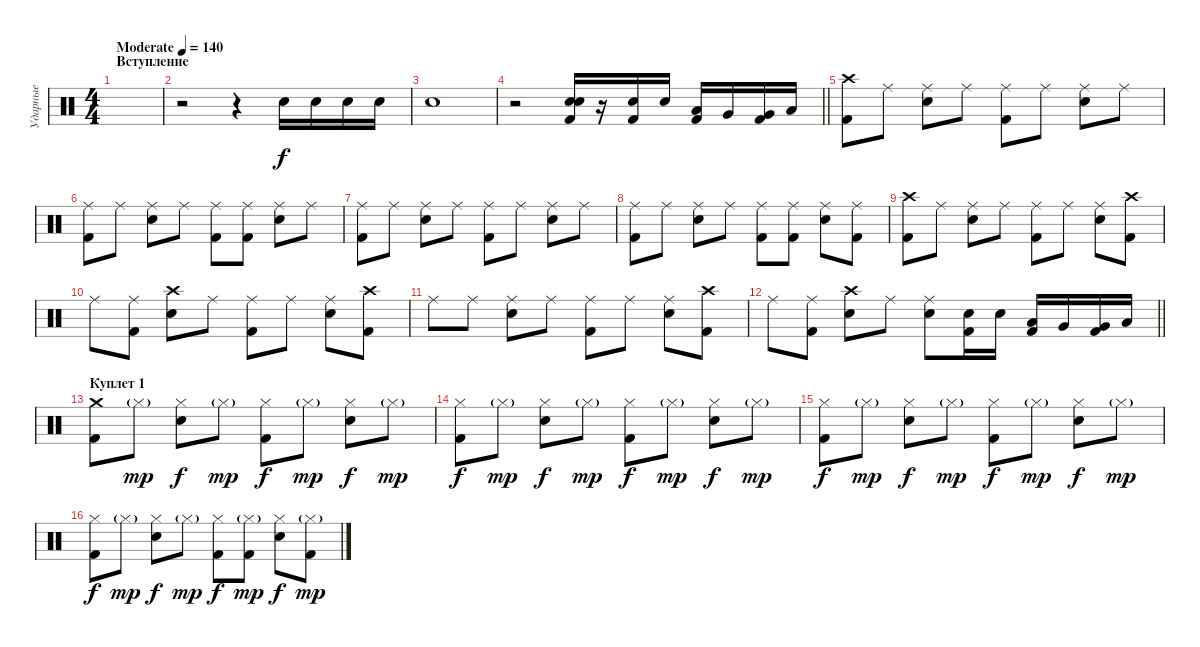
\track ("Ударные" "Ударные") {instrument percussion}
\staff {score}
\articulation defaults
\ts (4 4)
\section ("" "Вступление")
\tempo (140 "Moderate")
\clef neutral
\ks c
|
r.2 r.4 "Snare (hit) 2".16 "Snare (hit) 2".16 "Snare (hit) 2".16 "Snare (hit) 2".16 |
"Snare (hit) 2".1 |
\barLineRight lightlight
r.2 ("Snare (hit) 2" "Snare (hit) 2" "Kick (hit) 2").16 r.16 ("Snare (hit) 2" "Kick (hit) 2").16 "Snare (hit) 2".16 ("Low Floor Tom (hit)" "Kick (hit) 2").16 "Very Low Tom (hit)".16 ("Very Low Tom (hit)" "Kick (hit) 2").16 "Low Tom (hit)".16 |
("Crash high (hit)" "Kick (hit) 2").8 "Ride (middle)".8 ("Ride (middle)" "Snare (hit) 2").8 "Ride (middle)".8 ("Ride (middle)" "Kick (hit) 2").8 "Ride (middle)".8 ("Ride (middle)" "Snare (hit) 2").8 "Ride (middle)".8 |
("Ride (middle)" "Kick (hit) 2").8 "Ride (middle)".8 ("Ride (middle)" "Snare (hit) 2").8 "Ride (middle)".8 ("Ride (middle)" "Kick (hit) 2").8 ("Ride (middle)" "Kick (hit) 2").8 ("Ride (middle)" "Snare (hit) 2").8 "Ride (middle)".8 |
("Ride (middle)" "Kick (hit) 2").8 "Ride (middle)".8 ("Ride (middle)" "Snare (hit) 2").8 "Ride (middle)".8 ("Ride (middle)" "Kick (hit) 2").8 "Ride (middle)".8 ("Ride (middle)" "Snare (hit) 2").8 "Ride (middle)".8 |
("Ride (middle)" "Kick (hit) 2").8 "Ride (middle)".8 ("Ride (middle)" "Snare (hit) 2").8 "Ride (middle)".8 ("Ride (middle)" "Kick (hit) 2").8 ("Ride (middle)" "Kick (hit) 2").8 ("Ride (middle)" "Snare (hit) 2").8 ("Ride (middle)" "Kick (hit) 2").8 |
("Crash high (hit)" "Kick (hit) 2").8 "Ride (middle)".8 ("Ride (middle)" "Snare (hit) 2").8 "Ride (middle)".8 ("Ride (middle)" "Kick (hit) 2").8 "Ride (middle)".8 ("Ride (middle)" "Snare (hit) 2").8 ("Crash high (hit)" "Kick (hit) 2").8 |
"Ride (middle)".8 ("Ride (middle)" "Kick (hit) 2").8 ("Crash high (hit)" "Snare (hit) 2").8 "Ride (middle)".8 ("Ride (middle)" "Kick (hit) 2").8 "Ride (middle)".8 ("Ride (middle)" "Snare (hit) 2").8 ("Crash high (hit)" "Kick (hit) 2").8 |
"Ride (middle)".8 "Ride (middle)".8 ("Ride (middle)" "Snare (hit) 2").8 "Ride (middle)".8 ("Ride (middle)" "Kick (hit) 2").8 "Ride (middle)".8 ("Ride (middle)" "Snare (hit) 2").8 ("Crash high (hit)" "Kick (hit) 2").8 |
\barLineRight lightlight "Ride (middle)".8
("Ride (middle)" "Kick (hit) 2").8 ("Crash high (hit)" "Snare (hit) 2").8 "Ride (middle)".8 ("Ride (middle)" "Snare (hit) 2").8 ("Snare (hit) 2" "Kick (hit) 2").16 "Snare (hit) 2".16 ("Low Floor Tom (hit)" "Kick (hit) 2").16 "Very Low Tom (hit)".16 ("Very Low Tom (hit)" "Kick (hit) 2").16 "Low Tom (hit)".16 |
\section ("" "Куплет 1")
("Crash medium (hit)" "Kick (hit) 2").8 "Hi-Hat (closed)"{g}.8{dy mp} ("Hi-Hat (closed)" "Snare (hit) 2").8{dy f} "Hi-Hat (closed)"{g}.8{dy mp} ("Hi-Hat (closed)" "Kick (hit) 2").8{dy f} "Hi-Hat (closed)"{g}.8{dy mp} ("Hi-Hat (closed)" "Snare (hit) 2").8{dy f} "Hi-Hat (closed)"{g}.8{dy mp} |
("Hi-Hat (closed)" "Kick (hit) 2").8{dy f} "Hi-Hat (closed)"{g}.8{dy mp} ("Hi-Hat (closed)" "Snare (hit) 2").8{dy f} "Hi-Hat (closed)"{g}.8{dy mp} ("Hi-Hat (closed)" "Kick (hit) 2").8{dy f} "Hi-Hat (closed)"{g}.8{dy mp} ("Hi-Hat (closed)" "Snare (hit) 2").8{dy f} "Hi-Hat (closed)"{g}.8{dy mp} |
("Hi-Hat (closed)" "Kick (hit) 2").8{dy f} "Hi-Hat (closed)"{g}.8{dy mp} ("Hi-Hat (closed)" "Snare (hit) 2").8{dy f} "Hi-Hat (closed)"{g}.8{dy mp} ("Hi-Hat (closed)" "Kick (hit) 2").8{dy f} "Hi-Hat (closed)"{g}.8{dy mp} ("Hi-Hat (closed)" "Snare (hit) 2").8{dy f} "Hi-Hat (closed)"{g}.8{dy mp} |
("Hi-Hat (closed)" "Kick (hit) 2").8{dy f} "Hi-Hat (closed)"{g}.8{dy mp} ("Hi-Hat (closed)" "Snare (hit) 2").8{dy f} "Hi-Hat (closed)"{g}.8{dy mp} ("Hi-Hat (closed)" "Kick (hit) 2").8{dy f} ("Hi-Hat (closed)"{g} "Kick (hit) 2").8{dy mp} ("Hi-Hat (closed)" "Snare (hit) 2").8{dy f} ("Hi-Hat (closed)"{g} "Kick (hit) 2").8{dy mp}
